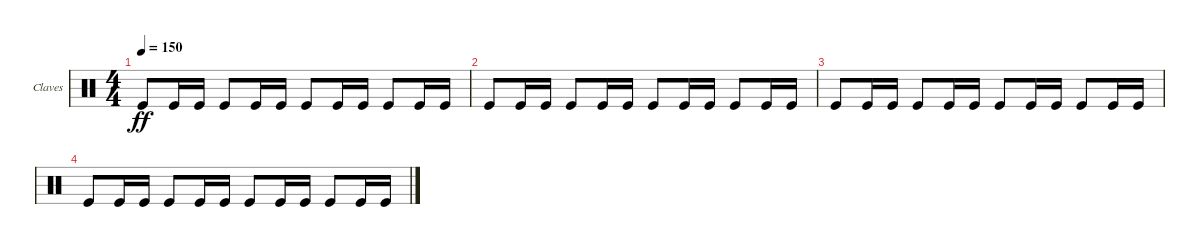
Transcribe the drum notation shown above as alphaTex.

\defaultSystemsLayout 4
\bracketExtendMode groupsimilarinstruments
\firstSystemTrackNameOrientation horizontal
\otherSystemsTrackNameOrientation horizontal
\track ("Claves" "Claves") {instrument percussion}
\staff {score}
\articulation defaults
\ts (4 4)
\tempo 150
\clef neutral
\scale
0.472222
\ks c "Kick (hit)".8{dy ff} "Kick (hit)".16 "Kick (hit)".16 "Kick (hit)".8 "Kick (hit)".16 "Kick (hit)".16 "Kick (hit)".8 "Kick (hit)".16 "Kick (hit)".16 "Kick (hit)".8 "Kick (hit)".16 "Kick (hit)".16
|
\scale
0.263889 "Kick (hit)".8 "Kick (hit)".16 "Kick (hit)".16 "Kick (hit)".8 "Kick (hit)".16 "Kick (hit)".16 "Kick (hit)".8 "Kick (hit)".16 "Kick (hit)".16 "Kick (hit)".8 "Kick (hit)".16 "Kick (hit)".16 |
\scale
0.263889 "Kick (hit)".8 "Kick (hit)".16 "Kick (hit)".16 "Kick (hit)".8 "Kick (hit)".16 "Kick (hit)".16 "Kick (hit)".8 "Kick (hit)".16 "Kick (hit)".16 "Kick (hit)".8 "Kick (hit)".16 "Kick (hit)".16 |
\scale
0.333333 "Kick (hit)".8 "Kick (hit)".16 "Kick (hit)".16 "Kick (hit)".8 "Kick (hit)".16 "Kick (hit)".16 "Kick (hit)".8 "Kick (hit)".16 "Kick (hit)".16 "Kick (hit)".8 "Kick (hit)".16 "Kick (hit)".16 |
\scale
0.333333 |
\scale
0.333333 |
\scale
0.333333 |
\scale
0.333333 |
\scale
0.333333 |
\scale
0.333333 |
\scale
0.333333 |
\scale
0.333333 |
\scale
0.333333 |
\scale
0.333333 |
\scale
0.333333 |
\scale
0.333333
